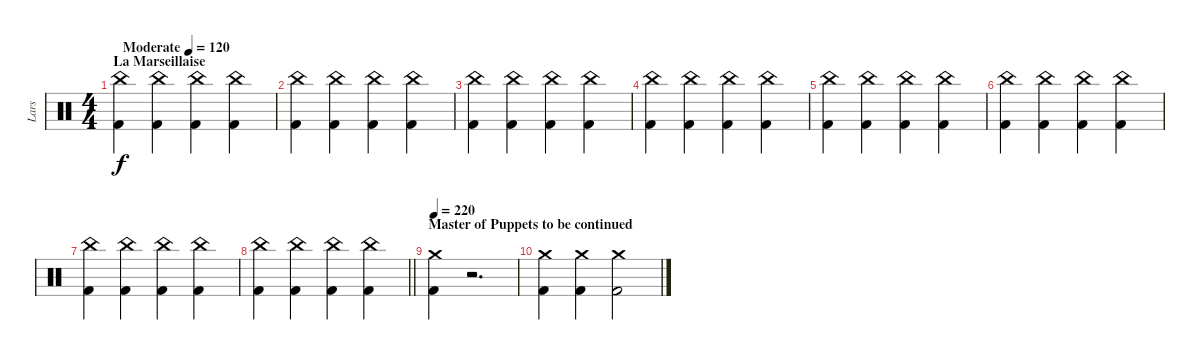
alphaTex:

\track ("Lars" "Lars") {instrument percussion}
\staff {score}
\articulation defaults
\ts (4 4)
\section ("" "La Marseillaise")
\tempo (120 "Moderate")
\clef neutral
\ks c
("China (hit)" "Kick (hit) 2").4{dy f} ("China (hit)" "Kick (hit) 2").4 ("China (hit)" "Kick (hit) 2").4 ("China (hit)" "Kick (hit) 2").4 |
("China (hit)" "Kick (hit) 2").4 ("China (hit)" "Kick (hit) 2").4 ("China (hit)" "Kick (hit) 2").4 ("China (hit)" "Kick (hit) 2").4 |
("China (hit)" "Kick (hit) 2").4 ("China (hit)" "Kick (hit) 2").4 ("China (hit)" "Kick (hit) 2").4 ("China (hit)" "Kick (hit) 2").4 |
("China (hit)" "Kick (hit) 2").4 ("China (hit)" "Kick (hit) 2").4 ("China (hit)" "Kick (hit) 2").4 ("China (hit)" "Kick (hit) 2").4 |
("China (hit)" "Kick (hit) 2").4 ("China (hit)" "Kick (hit) 2").4 ("China (hit)" "Kick (hit) 2").4 ("China (hit)" "Kick (hit) 2").4 |
("China (hit)" "Kick (hit) 2").4 ("China (hit)" "Kick (hit) 2").4 ("China (hit)" "Kick (hit) 2").4 ("China (hit)" "Kick (hit) 2").4 |
("China (hit)" "Kick (hit) 2").4 ("China (hit)" "Kick (hit) 2").4 ("China (hit)" "Kick (hit) 2").4 ("China (hit)" "Kick (hit) 2").4 |
\barLineRight lightlight
("China (hit)" "Kick (hit) 2").4 ("China (hit)" "Kick (hit) 2").4 ("China (hit)" "Kick (hit) 2").4 ("China (hit)" "Kick (hit) 2").4 |
\section ("" "Master of Puppets to be continued")
\tempo 220
("Crash medium (hit)" "Kick (hit) 2").4 r.2{d} |
("Crash medium (hit)" "Kick (hit) 2").4 ("Crash medium (hit)" "Kick (hit) 2").4 ("Crash medium (hit)" "Kick (hit) 2").2
